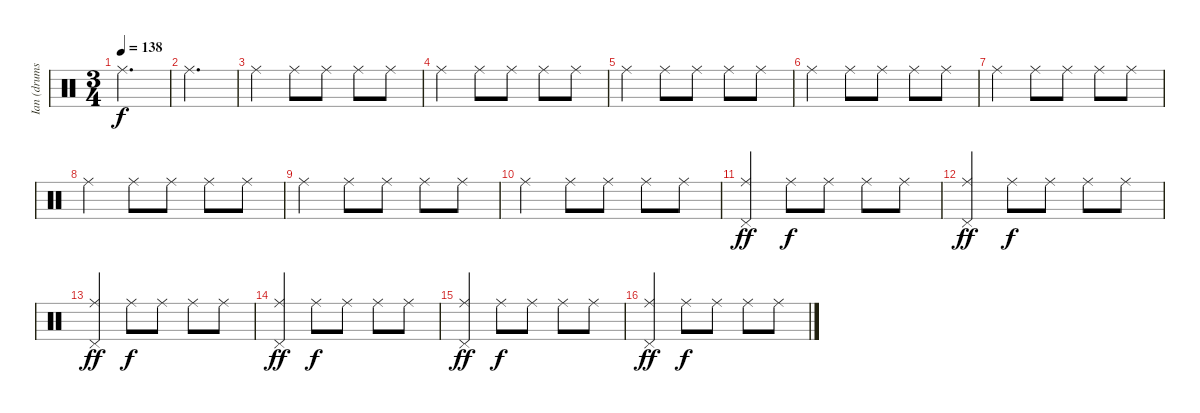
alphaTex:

\track ("Ian (drums)" "Ian (drums") {instrument percussion}
\staff {score}
\articulation defaults
\ts (3 4)
\tempo 138
\clef neutral
\ks c "Ride (middle)".2{d dy f}
|
"Ride (middle)".2{d} |
"Ride (middle)".4 "Ride (middle)".8 "Ride (middle)".8 "Ride (middle)".8 "Ride (middle)".8 |
"Ride (middle)".4 "Ride (middle)".8 "Ride (middle)".8 "Ride (middle)".8 "Ride (middle)".8 |
"Ride (middle)".4 "Ride (middle)".8 "Ride (middle)".8 "Ride (middle)".8 "Ride (middle)".8 |
"Ride (middle)".4 "Ride (middle)".8 "Ride (middle)".8 "Ride (middle)".8 "Ride (middle)".8 |
"Ride (middle)".4 "Ride (middle)".8 "Ride (middle)".8 "Ride (middle)".8 "Ride (middle)".8 |
"Ride (middle)".4 "Ride (middle)".8 "Ride (middle)".8 "Ride (middle)".8 "Ride (middle)".8 |
"Ride (middle)".4 "Ride (middle)".8 "Ride (middle)".8 "Ride (middle)".8 "Ride (middle)".8 |
"Ride (middle)".4 "Ride (middle)".8 "Ride (middle)".8 "Ride (middle)".8 "Ride (middle)".8 |
("Ride (middle)" "Pedal Hi-Hat (hit)").4{dy ff} "Ride (middle)".8{dy f} "Ride (middle)".8 "Ride (middle)".8 "Ride (middle)".8 |
("Ride (middle)" "Pedal Hi-Hat (hit)").4{dy ff} "Ride (middle)".8{dy f} "Ride (middle)".8 "Ride (middle)".8 "Ride (middle)".8 |
("Ride (middle)" "Pedal Hi-Hat (hit)").4{dy ff} "Ride (middle)".8{dy f} "Ride (middle)".8 "Ride (middle)".8 "Ride (middle)".8 |
("Ride (middle)" "Pedal Hi-Hat (hit)").4{dy ff} "Ride (middle)".8{dy f} "Ride (middle)".8 "Ride (middle)".8 "Ride (middle)".8 |
("Ride (middle)" "Pedal Hi-Hat (hit)").4{dy ff} "Ride (middle)".8{dy f} "Ride (middle)".8 "Ride (middle)".8 "Ride (middle)".8 |
("Ride (middle)" "Pedal Hi-Hat (hit)").4{dy ff} "Ride (middle)".8{dy f} "Ride (middle)".8 "Ride (middle)".8 "Ride (middle)".8
